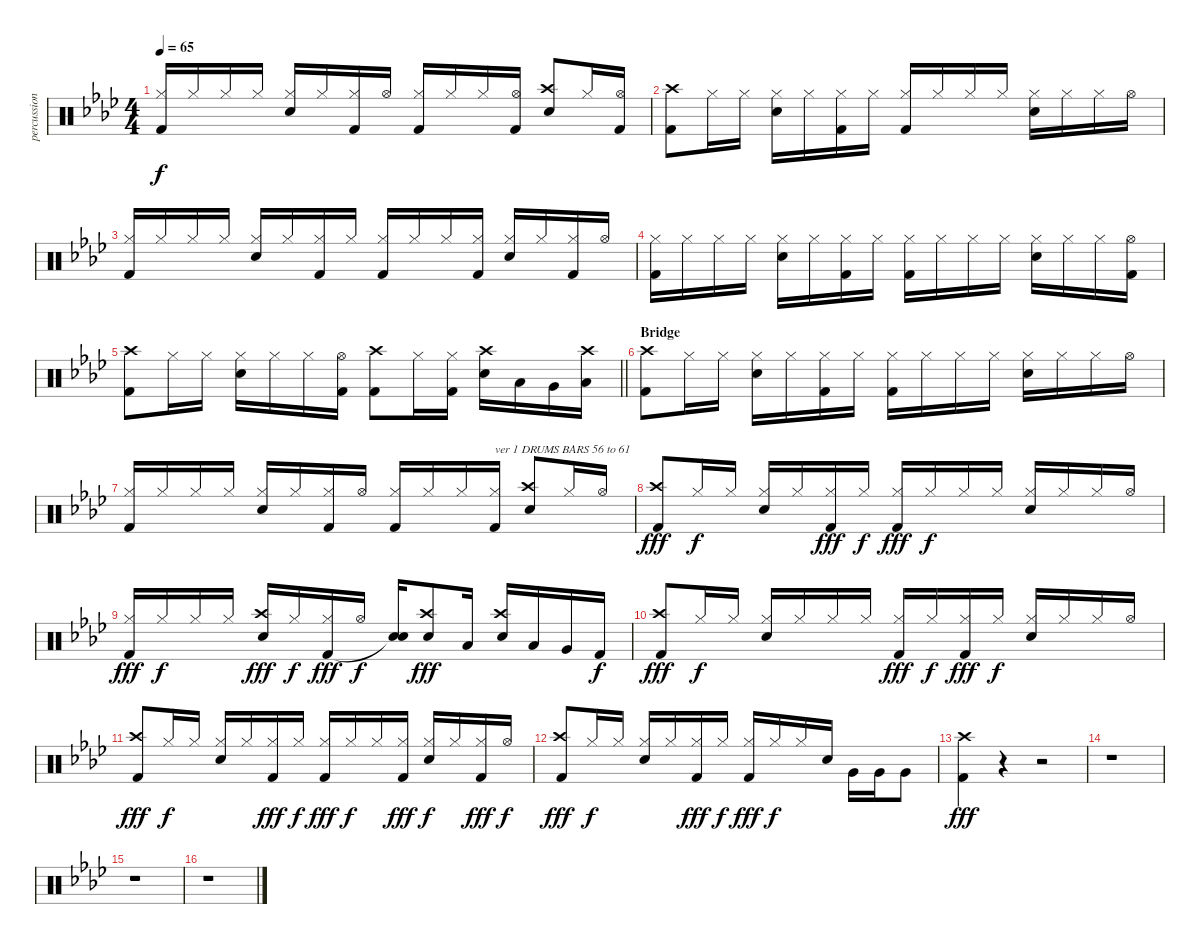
\track ("percussion" "percussion") {instrument percussion}
\staff {score}
\articulation defaults
\ts (4 4)
\tempo 65
\clef neutral
\ks ab
("Hi-Hat (closed)" "Kick (hit) 2").16{dy f beam Up} "Hi-Hat (closed)".16{beam Up} "Hi-Hat (closed)".16{beam Up} "Hi-Hat (closed)".16{beam Up} ("Snare (hit) 2" "Hi-Hat (closed)").16{beam Up} "Hi-Hat (closed)".16{beam Up} ("Hi-Hat (closed)" "Kick (hit) 2").16{beam Up} "Hi-Hat (open)".16{beam Up} ("Hi-Hat (closed)" "Kick (hit) 2").16{beam Up} "Hi-Hat (closed)".16{beam Up} "Hi-Hat (closed)".16{beam Up} ("Hi-Hat (open)" "Kick (hit) 2").16{beam Up} ("Crash high (hit)" "Snare (hit) 2").8{beam Up} "Hi-Hat (closed)".16{beam Up} ("Hi-Hat (open)" "Kick (hit) 2").16{beam Up} |
("Crash high (hit)" "Kick (hit) 2").8 "Hi-Hat (closed)".16 "Hi-Hat (closed)".16 ("Snare (hit) 2" "Hi-Hat (closed)").16 "Hi-Hat (closed)".16 ("Hi-Hat (closed)" "Kick (hit) 2").16 "Hi-Hat (closed)".16 ("Hi-Hat (closed)" "Kick (hit) 2").16 "Hi-Hat (closed)".16{beam Up} "Hi-Hat (closed)".16{beam Up} "Hi-Hat (closed)".16{beam Up} ("Snare (hit) 2" "Hi-Hat (closed)").16 "Hi-Hat (closed)".16 "Hi-Hat (closed)".16 "Hi-Hat (open)".16 |
("Hi-Hat (closed)" "Kick (hit) 2").16{beam Up} "Hi-Hat (closed)".16{beam Up} "Hi-Hat (closed)".16{beam Up} "Hi-Hat (closed)".16{beam Up} ("Snare (hit) 2" "Hi-Hat (closed)").16{beam Up} "Hi-Hat (closed)".16{beam Up} ("Hi-Hat (closed)" "Kick (hit) 2").16{beam Up} "Hi-Hat (closed)".16{beam Up} ("Hi-Hat (closed)" "Kick (hit) 2").16{beam Up} "Hi-Hat (closed)".16{beam Up} "Hi-Hat (closed)".16{beam Up} ("Hi-Hat (closed)" "Kick (hit) 2").16{beam Up} ("Snare (hit) 2" "Hi-Hat (closed)").16{beam Up} "Hi-Hat (closed)".16{beam Up} ("Hi-Hat (closed)" "Kick (hit) 2").16{beam Up} "Hi-Hat (open)".16{beam Up} |
("Hi-Hat (closed)" "Kick (hit) 2").16 "Hi-Hat (closed)".16 "Hi-Hat (closed)".16 "Hi-Hat (closed)".16 ("Snare (hit) 2" "Hi-Hat (closed)").16 "Hi-Hat (closed)".16 ("Hi-Hat (closed)" "Kick (hit) 2").16 "Hi-Hat (closed)".16 ("Hi-Hat (closed)" "Kick (hit) 2").16 "Hi-Hat (closed)".16 "Hi-Hat (closed)".16 "Hi-Hat (closed)".16 ("Snare (hit) 2" "Hi-Hat (closed)").16 "Hi-Hat (closed)".16 "Hi-Hat (closed)".16 ("Hi-Hat (open)" "Kick (hit) 2").16 |
\barLineRight lightlight
("Crash high (hit)" "Kick (hit) 2").8 "Hi-Hat (closed)".16 "Hi-Hat (closed)".16 ("Snare (hit) 2" "Hi-Hat (closed)").16 "Hi-Hat (closed)".16 "Hi-Hat (closed)".16 ("Hi-Hat (open)" "Kick (hit) 2").16 ("Crash high (hit)" "Kick (hit) 2").8 "Hi-Hat (closed)".16 ("Hi-Hat (closed)" "Kick (hit) 2").16 ("Crash high (hit)" "Snare (hit) 2").16 "Low Tom (hit)".16 "Very Low Tom (hit)".16 ("Crash high (hit)" "Low Floor Tom (hit)").16 |
\section ("" "Bridge")
("Crash high (hit)" "Kick (hit) 2").8 "Hi-Hat (closed)".16 "Hi-Hat (closed)".16 ("Snare (hit) 2" "Hi-Hat (closed)").16 "Hi-Hat (closed)".16 ("Hi-Hat (closed)" "Kick (hit) 2").16 "Hi-Hat (closed)".16 ("Hi-Hat (closed)" "Kick (hit) 2").16 "Hi-Hat (closed)".16 "Hi-Hat (closed)".16 "Hi-Hat (closed)".16 ("Snare (hit) 2" "Hi-Hat (closed)").16 "Hi-Hat (closed)".16 "Hi-Hat (closed)".16 "Hi-Hat (open)".16 |
("Hi-Hat (closed)" "Kick (hit) 2").16{beam Up} "Hi-Hat (closed)".16{beam Up} "Hi-Hat (closed)".16{beam Up} "Hi-Hat (closed)".16{beam Up} ("Snare (hit) 2" "Hi-Hat (closed)").16{beam Up} "Hi-Hat (closed)".16{beam Up} ("Hi-Hat (closed)" "Kick (hit) 2").16{beam Up} "Hi-Hat (open)".16{beam Up} ("Hi-Hat (closed)" "Kick (hit) 2").16{beam Up} "Hi-Hat (closed)".16{beam Up} "Hi-Hat (closed)".16{beam Up} ("Hi-Hat (closed)" "Kick (hit) 2").16{txt "ver 1 DRUMS BARS 56 to 61" beam Up} ("Crash high (hit)" "Snare (hit) 2").8{beam Up} "Hi-Hat (closed)".16{beam Up} "Hi-Hat (open)".16{beam Up} |
("Crash high (hit)" "Kick (hit) 2").8{dy fff beam Up} "Hi-Hat (closed)".16{dy f beam Up} "Hi-Hat (closed)".16{beam Up} ("Snare (hit) 2" "Hi-Hat (closed)").16{beam Up} "Hi-Hat (closed)".16{beam Up} ("Hi-Hat (closed)" "Kick (hit) 2").16{dy fff beam Up} "Hi-Hat (closed)".16{dy f beam Up} ("Hi-Hat (closed)" "Kick (hit) 2").16{dy fff beam Up} "Hi-Hat (closed)".16{dy f beam Up} "Hi-Hat (closed)".16{beam Up} "Hi-Hat (closed)".16{beam Up} ("Snare (hit) 2" "Hi-Hat (closed)").16{beam Up} "Hi-Hat (closed)".16{beam Up} "Hi-Hat (closed)".16{beam Up} "Hi-Hat (open)".16{beam Up} |
("Hi-Hat (closed)" "Kick (hit) 2").16{dy fff beam Up} "Hi-Hat (closed)".16{dy f beam Up} "Hi-Hat (closed)".16{beam Up} "Hi-Hat (closed)".16{beam Up} ("Crash high (hit)" "Snare (hit) 2").16{dy fff beam Up} "Hi-Hat (closed)".16{dy f beam Up} ("Hi-Hat (closed)" "Kick (hit) 2").16{dy fff beam Up} "Hi-Hat (open)".16{dy f beam Up} ("Snare (hit) 2" "Snare (hit)"{t}).16{beam Up} ("Crash high (hit)" "Snare (hit) 2").8{dy fff beam Up} "Low Tom (hit)".16{beam Up} ("Crash high (hit)" "Snare (hit) 2").16{beam Up} "Low Tom (hit)".16{beam Up} "Very Low Tom (hit)".16{beam Up} "Kick (hit) 2".16{dy f beam Up} |
("Crash high (hit)" "Kick (hit) 2").8{dy fff beam Up} "Hi-Hat (closed)".16{dy f beam Up} "Hi-Hat (closed)".16{beam Up} ("Snare (hit) 2" "Hi-Hat (closed)").16{beam Up} "Hi-Hat (closed)".16{beam Up} "Hi-Hat (closed)".16{beam Up} "Hi-Hat (closed)".16{beam Up} ("Hi-Hat (closed)" "Kick (hit) 2").16{dy fff beam Up} "Hi-Hat (closed)".16{dy f beam Up} ("Hi-Hat (closed)" "Kick (hit) 2").16{dy fff beam Up} "Hi-Hat (closed)".16{dy f beam Up} ("Snare (hit) 2" "Hi-Hat (closed)").16{beam Up} "Hi-Hat (closed)".16{beam Up} "Hi-Hat (closed)".16{beam Up} "Hi-Hat (open)".16{beam Up} |
("Crash high (hit)" "Kick (hit) 2").8{dy fff beam Up} "Hi-Hat (closed)".16{dy f beam Up} "Hi-Hat (closed)".16{beam Up} ("Snare (hit) 2" "Hi-Hat (closed)").16{beam Up} "Hi-Hat (closed)".16{beam Up} ("Hi-Hat (closed)" "Kick (hit) 2").16{dy fff beam Up} "Hi-Hat (closed)".16{dy f beam Up} ("Hi-Hat (closed)" "Kick (hit) 2").16{dy fff beam Up} "Hi-Hat (closed)".16{dy f beam Up} "Hi-Hat (closed)".16{beam Up} ("Hi-Hat (closed)" "Kick (hit) 2").16{dy fff beam Up} ("Snare (hit) 2" "Hi-Hat (closed)").16{dy f beam Up} "Hi-Hat (closed)".16{beam Up} ("Hi-Hat (closed)" "Kick (hit) 2").16{dy fff beam Up} "Hi-Hat (open)".16{dy f beam Up} |
("Crash high (hit)" "Kick (hit) 2").8{dy fff beam Up} "Hi-Hat (closed)".16{dy f beam Up} "Hi-Hat (closed)".16{beam Up} ("Snare (hit) 2" "Hi-Hat (closed)").16{beam Up} "Hi-Hat (closed)".16{beam Up} ("Hi-Hat (closed)" "Kick (hit) 2").16{dy fff beam Up} "Hi-Hat (closed)".16{dy f beam Up} ("Hi-Hat (closed)" "Kick (hit) 2").16{dy fff beam Up} "Hi-Hat (closed)".16{dy f beam Up} "Hi-Hat (closed)".16{beam Up} "Snare (hit) 2".16{beam Up} "Very Low Tom (hit)".16{beam Down} "Very Low Tom (hit)".16{beam Down} "Very Low Tom (hit)".8{beam Down} |
("Crash high (hit)" "Kick (hit) 2").4{dy fff} r.4 r.2 |
r.1 |
r.1 |
r.1
